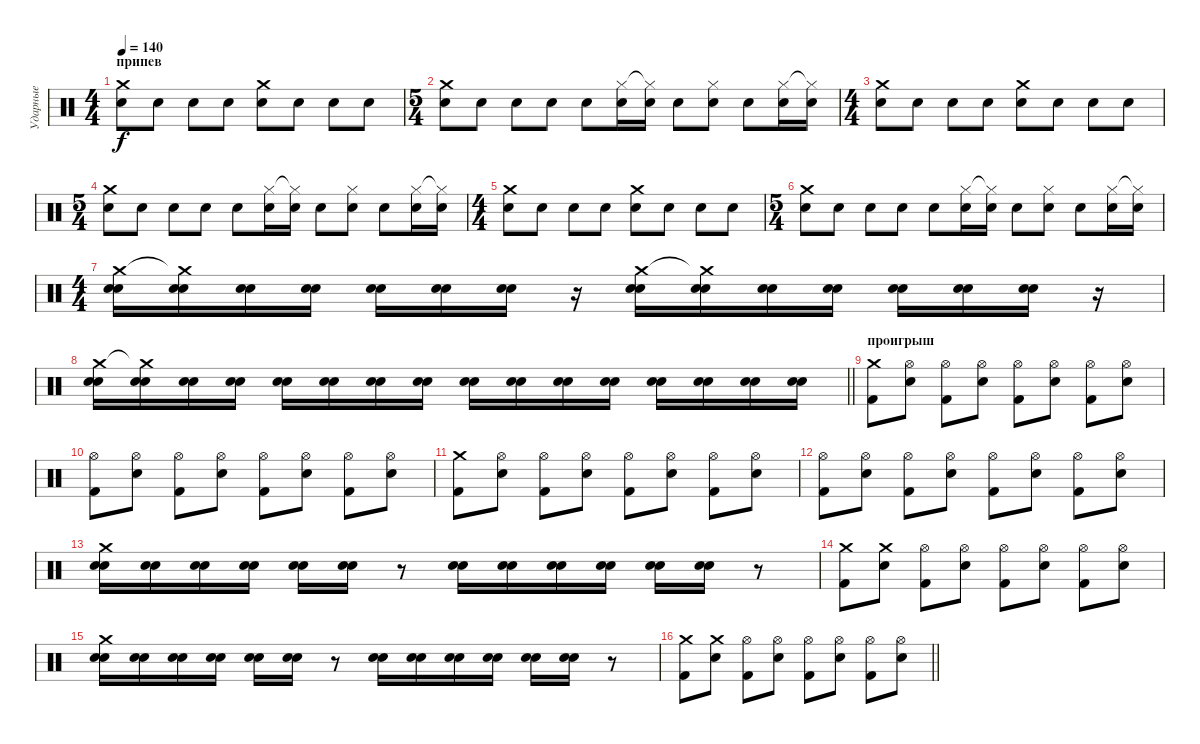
\track ("Ударные" "Ударные") {instrument percussion}
\staff {score}
\articulation defaults
\ts (4 4)
\section ("" "припев")
\tempo 140
\clef neutral
\ks c
("Snare (hit) 2" "Crash medium (hit)").8{dy f} "Snare (hit) 2".8 "Snare (hit) 2".8 "Snare (hit) 2".8 ("Snare (hit) 2" "Crash medium (hit)").8 "Snare (hit) 2".8 "Snare (hit) 2".8 "Snare (hit) 2".8 |
\ts (5 4)
("Snare (hit) 2" "Crash medium (hit)").8 "Snare (hit) 2".8 "Snare (hit) 2".8 "Snare (hit) 2".8 "Electric Snare (hit)".8 ("Hi-Hat (closed)" "Electric Snare (hit)").16 ("Hi-Hat (closed)"{t} "Snare (hit) 2").16 "Snare (hit) 2".8 ("Hi-Hat (closed)" "Snare (hit) 2").8 "Snare (hit) 2".8 ("Hi-Hat (closed)" "Electric Snare (hit)").16 ("Hi-Hat (closed)"{t} "Snare (hit) 2").16 |
\ts (4 4)
("Snare (hit) 2" "Crash medium (hit)").8 "Snare (hit) 2".8 "Snare (hit) 2".8 "Snare (hit) 2".8 ("Snare (hit) 2" "Crash medium (hit)").8 "Snare (hit) 2".8 "Snare (hit) 2".8 "Snare (hit) 2".8 |
\ts (5 4)
("Snare (hit) 2" "Crash medium (hit)").8 "Snare (hit) 2".8 "Snare (hit) 2".8 "Snare (hit) 2".8 "Electric Snare (hit)".8 ("Hi-Hat (closed)" "Electric Snare (hit)").16 ("Hi-Hat (closed)"{t} "Snare (hit) 2").16 "Snare (hit) 2".8 ("Hi-Hat (closed)" "Snare (hit) 2").8 "Snare (hit) 2".8 ("Hi-Hat (closed)" "Electric Snare (hit)").16 ("Hi-Hat (closed)"{t} "Snare (hit) 2").16 |
\ts (4 4)
("Snare (hit) 2" "Crash medium (hit)").8 "Snare (hit) 2".8 "Snare (hit) 2".8 "Snare (hit) 2".8 ("Snare (hit) 2" "Crash medium (hit)").8 "Snare (hit) 2".8 "Snare (hit) 2".8 "Snare (hit) 2".8 |
\ts (5 4)
("Snare (hit) 2" "Crash medium (hit)").8 "Snare (hit) 2".8 "Snare (hit) 2".8 "Snare (hit) 2".8 "Electric Snare (hit)".8 ("Hi-Hat (closed)" "Electric Snare (hit)").16 ("Hi-Hat (closed)"{t} "Snare (hit) 2").16 "Snare (hit) 2".8 ("Hi-Hat (closed)" "Snare (hit) 2").8 "Snare (hit) 2".8 ("Hi-Hat (closed)" "Electric Snare (hit)").16 ("Hi-Hat (closed)"{t} "Snare (hit) 2").16 |
\ts (4 4)
("Electric Snare (hit)" "Snare (hit) 2" "Crash medium (hit)").16 ("Electric Snare (hit)" "Snare (hit) 2" "Crash medium (hit)"{t}).16 ("Electric Snare (hit)" "Snare (hit) 2").16 ("Electric Snare (hit)" "Snare (hit) 2").16 ("Electric Snare (hit)" "Snare (hit) 2").16 ("Electric Snare (hit)" "Snare (hit) 2").16 ("Electric Snare (hit)" "Snare (hit) 2").16 r.16 ("Electric Snare (hit)" "Snare (hit) 2" "Crash medium (hit)").16 ("Electric Snare (hit)" "Snare (hit) 2" "Crash medium (hit)"{t}).16 ("Electric Snare (hit)" "Snare (hit) 2").16 ("Electric Snare (hit)" "Snare (hit) 2").16 ("Electric Snare (hit)" "Snare (hit) 2").16 ("Electric Snare (hit)" "Snare (hit) 2").16 ("Electric Snare (hit)" "Snare (hit) 2").16 r.16 |
\barLineRight lightlight
("Electric Snare (hit)" "Snare (hit) 2" "Crash medium (hit)").16 ("Electric Snare (hit)" "Snare (hit) 2" "Crash medium (hit)"{t}).16 ("Electric Snare (hit)" "Snare (hit) 2").16 ("Electric Snare (hit)" "Snare (hit) 2").16 ("Electric Snare (hit)" "Snare (hit) 2").16 ("Electric Snare (hit)" "Snare (hit) 2").16 ("Electric Snare (hit)" "Snare (hit) 2").16 ("Electric Snare (hit)" "Snare (hit) 2").16 ("Electric Snare (hit)" "Snare (hit) 2").16 ("Electric Snare (hit)" "Snare (hit) 2").16 ("Electric Snare (hit)" "Snare (hit) 2").16 ("Electric Snare (hit)" "Snare (hit) 2").16 ("Electric Snare (hit)" "Snare (hit) 2").16 ("Electric Snare (hit)" "Snare (hit) 2").16 ("Electric Snare (hit)" "Snare (hit) 2").16 ("Electric Snare (hit)" "Snare (hit) 2").16 |
\section ("" "проигрыш")
("Kick (hit) 2" "Crash medium (hit)").8 ("Electric Snare (hit)" "Hi-Hat (open)").8 ("Kick (hit) 2" "Hi-Hat (open)").8 ("Electric Snare (hit)" "Hi-Hat (open)").8 ("Kick (hit) 2" "Hi-Hat (open)").8 ("Electric Snare (hit)" "Hi-Hat (open)").8 ("Kick (hit) 2" "Hi-Hat (open)").8 ("Electric Snare (hit)" "Hi-Hat (open)").8 |
("Kick (hit) 2" "Hi-Hat (open)").8 ("Electric Snare (hit)" "Hi-Hat (open)").8 ("Kick (hit) 2" "Hi-Hat (open)").8 ("Electric Snare (hit)" "Hi-Hat (open)").8 ("Kick (hit) 2" "Hi-Hat (open)").8 ("Electric Snare (hit)" "Hi-Hat (open)").8 ("Kick (hit) 2" "Hi-Hat (open)").8 ("Electric Snare (hit)" "Hi-Hat (open)").8 |
("Kick (hit) 2" "Crash medium (hit)").8 ("Electric Snare (hit)" "Hi-Hat (open)").8 ("Kick (hit) 2" "Hi-Hat (open)").8 ("Electric Snare (hit)" "Hi-Hat (open)").8 ("Kick (hit) 2" "Hi-Hat (open)").8 ("Electric Snare (hit)" "Hi-Hat (open)").8 ("Kick (hit) 2" "Hi-Hat (open)").8 ("Electric Snare (hit)" "Hi-Hat (open)").8 |
("Kick (hit) 2" "Hi-Hat (open)").8 ("Electric Snare (hit)" "Hi-Hat (open)").8 ("Kick (hit) 2" "Hi-Hat (open)").8 ("Electric Snare (hit)" "Hi-Hat (open)").8 ("Kick (hit) 2" "Hi-Hat (open)").8 ("Electric Snare (hit)" "Hi-Hat (open)").8 ("Kick (hit) 2" "Hi-Hat (open)").8 ("Electric Snare (hit)" "Hi-Hat (open)").8 |
("Electric Snare (hit)" "Snare (hit) 2" "Crash medium (hit)").16 ("Electric Snare (hit)" "Snare (hit) 2").16 ("Electric Snare (hit)" "Snare (hit) 2").16 ("Electric Snare (hit)" "Snare (hit) 2").16 ("Electric Snare (hit)" "Snare (hit) 2").16 ("Electric Snare (hit)" "Snare (hit) 2").16 r.8 ("Electric Snare (hit)" "Snare (hit) 2").16 ("Electric Snare (hit)" "Snare (hit) 2").16 ("Electric Snare (hit)" "Snare (hit) 2").16 ("Electric Snare (hit)" "Snare (hit) 2").16 ("Electric Snare (hit)" "Snare (hit) 2").16 ("Electric Snare (hit)" "Snare (hit) 2").16 r.8 |
("Kick (hit) 2" "Crash medium (hit)").8 ("Electric Snare (hit)" "Crash medium (hit)").8 ("Kick (hit) 2" "Hi-Hat (open)").8 ("Electric Snare (hit)" "Hi-Hat (open)").8 ("Kick (hit) 2" "Hi-Hat (open)").8 ("Electric Snare (hit)" "Hi-Hat (open)").8 ("Kick (hit) 2" "Hi-Hat (open)").8 ("Electric Snare (hit)" "Hi-Hat (open)").8 |
("Electric Snare (hit)" "Snare (hit) 2" "Crash medium (hit)").16 ("Electric Snare (hit)" "Snare (hit) 2").16 ("Electric Snare (hit)" "Snare (hit) 2").16 ("Electric Snare (hit)" "Snare (hit) 2").16 ("Electric Snare (hit)" "Snare (hit) 2").16 ("Electric Snare (hit)" "Snare (hit) 2").16 r.8 ("Electric Snare (hit)" "Snare (hit) 2").16 ("Electric Snare (hit)" "Snare (hit) 2").16 ("Electric Snare (hit)" "Snare (hit) 2").16 ("Electric Snare (hit)" "Snare (hit) 2").16 ("Electric Snare (hit)" "Snare (hit) 2").16 ("Electric Snare (hit)" "Snare (hit) 2").16 r.8 |
\barLineRight lightlight
("Kick (hit) 2" "Crash medium (hit)").8 ("Electric Snare (hit)" "Crash medium (hit)").8 ("Kick (hit) 2" "Hi-Hat (open)").8 ("Electric Snare (hit)" "Hi-Hat (open)").8 ("Kick (hit) 2" "Hi-Hat (open)").8 ("Electric Snare (hit)" "Hi-Hat (open)").8 ("Kick (hit) 2" "Hi-Hat (open)").8 ("Electric Snare (hit)" "Hi-Hat (open)").8
